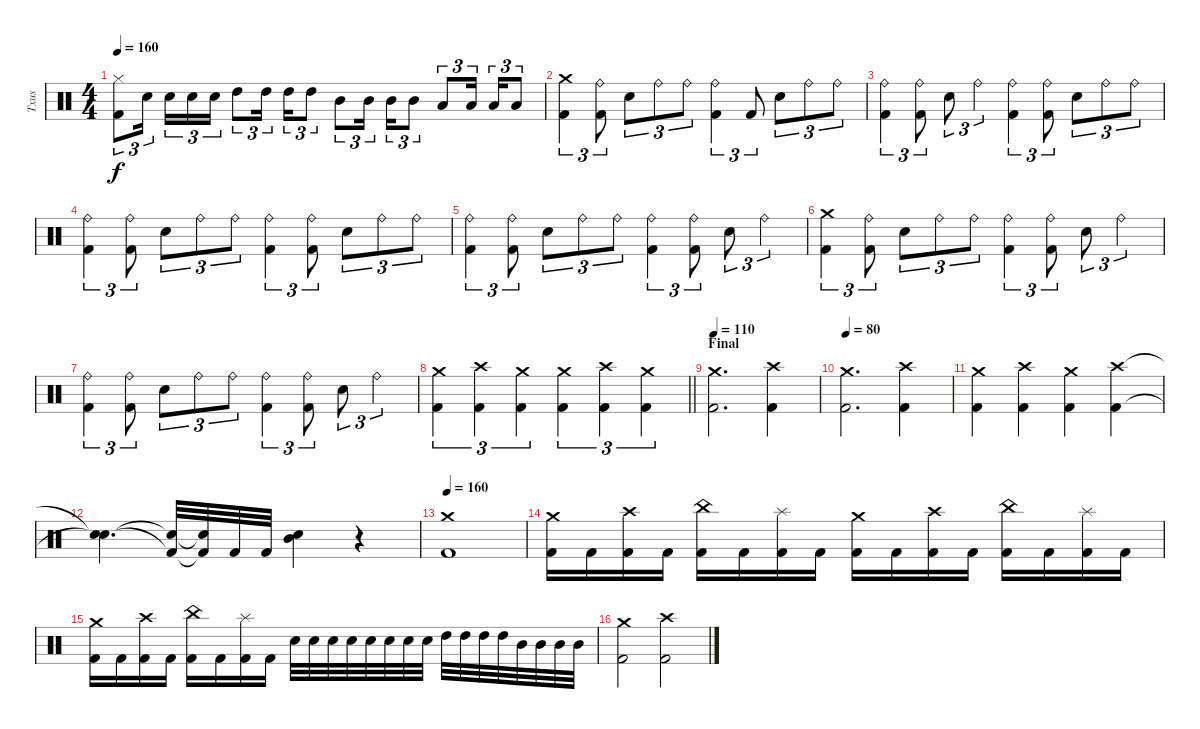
\track ("Txus" "Txus") {instrument percussion}
\staff {score}
\articulation defaults
\ts (4 4)
\tempo 160
\clef neutral
\ks c
("Hi-Hat (closed)" "Kick (hit) 2").8{tu (3 2) dy f} "Electric Snare (hit)".16{tu (3 2) beam splitsecondary} "Electric Snare (hit)".16{tu (3 2)} "Electric Snare (hit)".16{tu (3 2)} "Electric Snare (hit)".16{tu (3 2)} "High Tom (hit)".8{tu (3 2)} "High Tom (hit)".16{tu (3 2) beam splitsecondary} "High Tom (hit)".16{tu (3 2)} "High Tom (hit)".8{tu (3 2)} "Mid Tom (hit)".8{tu (3 2)} "Mid Tom (hit)".16{tu (3 2) beam splitsecondary} "Mid Tom (hit)".16{tu (3 2)} "Mid Tom (hit)".8{tu (3 2)} "Low Tom (hit)".8{tu (3 2)} "Low Tom (hit)".16{tu (3 2) beam splitsecondary} "Low Tom (hit)".16{tu (3 2)} "Low Tom (hit)".8{tu (3 2)} |
("Crash medium (hit)" "Kick (hit) 2").4{tu (3 2)} ("Ride (bell)" "Kick (hit) 2").8{tu (3 2)} "Snare (hit) 2".8{tu (3 2)} "Ride (bell)".8{tu (3 2)} "Ride (bell)".8{tu (3 2)} ("Ride (bell)" "Kick (hit) 2").4{tu (3 2)} "Kick (hit) 2".8{tu (3 2)} "Snare (hit) 2".8{tu (3 2)} "Ride (bell)".8{tu (3 2)} "Ride (bell)".8{tu (3 2)} |
("Ride (bell)" "Kick (hit) 2").4{tu (3 2)} ("Ride (bell)" "Kick (hit) 2").8{tu (3 2)} "Snare (hit) 2".8{tu (3 2)} "Ride (bell)".4{tu (3 2)} ("Ride (bell)" "Kick (hit) 2").4{tu (3 2)} ("Ride (bell)" "Kick (hit) 2").8{tu (3 2)} "Snare (hit) 2".8{tu (3 2)} "Ride (bell)".8{tu (3 2)} "Ride (bell)".8{tu (3 2)} |
("Ride (bell)" "Kick (hit) 2").4{tu (3 2)} ("Ride (bell)" "Kick (hit) 2").8{tu (3 2)} "Snare (hit) 2".8{tu (3 2)} "Ride (bell)".8{tu (3 2)} "Ride (bell)".8{tu (3 2)} ("Ride (bell)" "Kick (hit) 2").4{tu (3 2)} ("Ride (bell)" "Kick (hit) 2").8{tu (3 2)} "Snare (hit) 2".8{tu (3 2)} "Ride (bell)".8{tu (3 2)} "Ride (bell)".8{tu (3 2)} |
("Ride (bell)" "Kick (hit) 2").4{tu (3 2)} ("Ride (bell)" "Kick (hit) 2").8{tu (3 2)} "Snare (hit) 2".8{tu (3 2)} "Ride (bell)".8{tu (3 2)} "Ride (bell)".8{tu (3 2)} ("Ride (bell)" "Kick (hit) 2").4{tu (3 2)} ("Ride (bell)" "Kick (hit) 2").8{tu (3 2)} "Snare (hit) 2".8{tu (3 2)} "Ride (bell)".4{tu (3 2)} |
("Crash medium (hit)" "Kick (hit) 2").4{tu (3 2)} ("Ride (bell)" "Kick (hit) 2").8{tu (3 2)} "Snare (hit) 2".8{tu (3 2)} "Ride (bell)".8{tu (3 2)} "Ride (bell)".8{tu (3 2)} ("Ride (bell)" "Kick (hit) 2").4{tu (3 2)} ("Ride (bell)" "Kick (hit) 2").8{tu (3 2)} "Snare (hit) 2".8{tu (3 2)} "Ride (bell)".4{tu (3 2)} |
("Ride (bell)" "Kick (hit) 2").4{tu (3 2)} ("Ride (bell)" "Kick (hit) 2").8{tu (3 2)} "Snare (hit) 2".8{tu (3 2)} "Ride (bell)".8{tu (3 2)} "Ride (bell)".8{tu (3 2)} ("Ride (bell)" "Kick (hit) 2").4{tu (3 2)} ("Ride (bell)" "Kick (hit) 2").8{tu (3 2)} "Snare (hit) 2".8{tu (3 2)} "Ride (bell)".4{tu (3 2)} |
\barLineRight lightlight
("Crash medium (hit)" "Kick (hit) 2").4{tu (3 2)} ("Crash high (hit)" "Kick (hit) 2").4{tu (3 2)} ("Crash medium (hit)" "Kick (hit) 2").4{tu (3 2)} ("Crash medium (hit)" "Kick (hit) 2").4{tu (3 2)} ("Crash high (hit)" "Kick (hit) 2").4{tu (3 2)} ("Crash medium (hit)" "Kick (hit) 2").4{tu (3 2)} |
\section ("" "Final")
\tempo 110
("Crash medium (hit)" "Kick (hit) 2").2{d} ("Crash high (hit)" "Kick (hit) 2").4 |
\tempo 80
("Crash medium (hit)" "Kick (hit) 2").2{d} ("Crash high (hit)" "Kick (hit) 2").4 |
("Crash medium (hit)" "Kick (hit) 2").4 ("Crash high (hit)" "Kick (hit) 2").4 ("Crash medium (hit)" "Kick (hit) 2").4 ("Crash high (hit)" "Kick (hit) 2").4 |
("Snare (hit)"{t} "Snare (hit)"{t}).4{d} ("Snare (hit)"{t} "Kick (hit) 2"{t}).32 ("Snare (hit)"{t} "Kick (hit) 2"{t}).32 "Kick (hit) 2".32 "Kick (hit) 2".32 ("Mid Tom (hit)" "Snare (hit) 2").4 r.4 |
\tempo 160
("Crash medium (hit)" "Kick (hit) 2").1 |
("Crash medium (hit)" "Kick (hit) 2").16 "Kick (hit) 2".16 ("Crash high (hit)" "Kick (hit) 2").16 "Kick (hit) 2".16 ("China (hit)" "Kick (hit) 2").16 "Kick (hit) 2".16 ("Splash (hit)" "Kick (hit) 2").16 "Kick (hit) 2".16 ("Crash medium (hit)" "Kick (hit) 2").16 "Kick (hit) 2".16 ("Crash high (hit)" "Kick (hit) 2").16 "Kick (hit) 2".16 ("China (hit)" "Kick (hit) 2").16 "Kick (hit) 2".16 ("Splash (hit)" "Kick (hit) 2").16 "Kick (hit) 2".16 |
("Crash medium (hit)" "Kick (hit) 2").16 "Kick (hit) 2".16 ("Crash high (hit)" "Kick (hit) 2").16 "Kick (hit) 2".16 ("China (hit)" "Kick (hit) 2").16 "Kick (hit) 2".16 ("Splash (hit)" "Kick (hit) 2").16 "Kick (hit) 2".16 "Snare (hit) 2".32 "Snare (hit) 2".32 "Snare (hit) 2".32 "Snare (hit) 2".32 "Snare (hit) 2".32 "Snare (hit) 2".32 "Snare (hit) 2".32 "Snare (hit) 2".32 "High Tom (hit)".32 "High Tom (hit)".32 "High Tom (hit)".32 "High Tom (hit)".32 "Mid Tom (hit)".32 "Mid Tom (hit)".32 "Mid Tom (hit)".32 "Mid Tom (hit)".32 |
("Crash medium (hit)" "Kick (hit) 2").2 ("Crash high (hit)" "Kick (hit) 2").2
